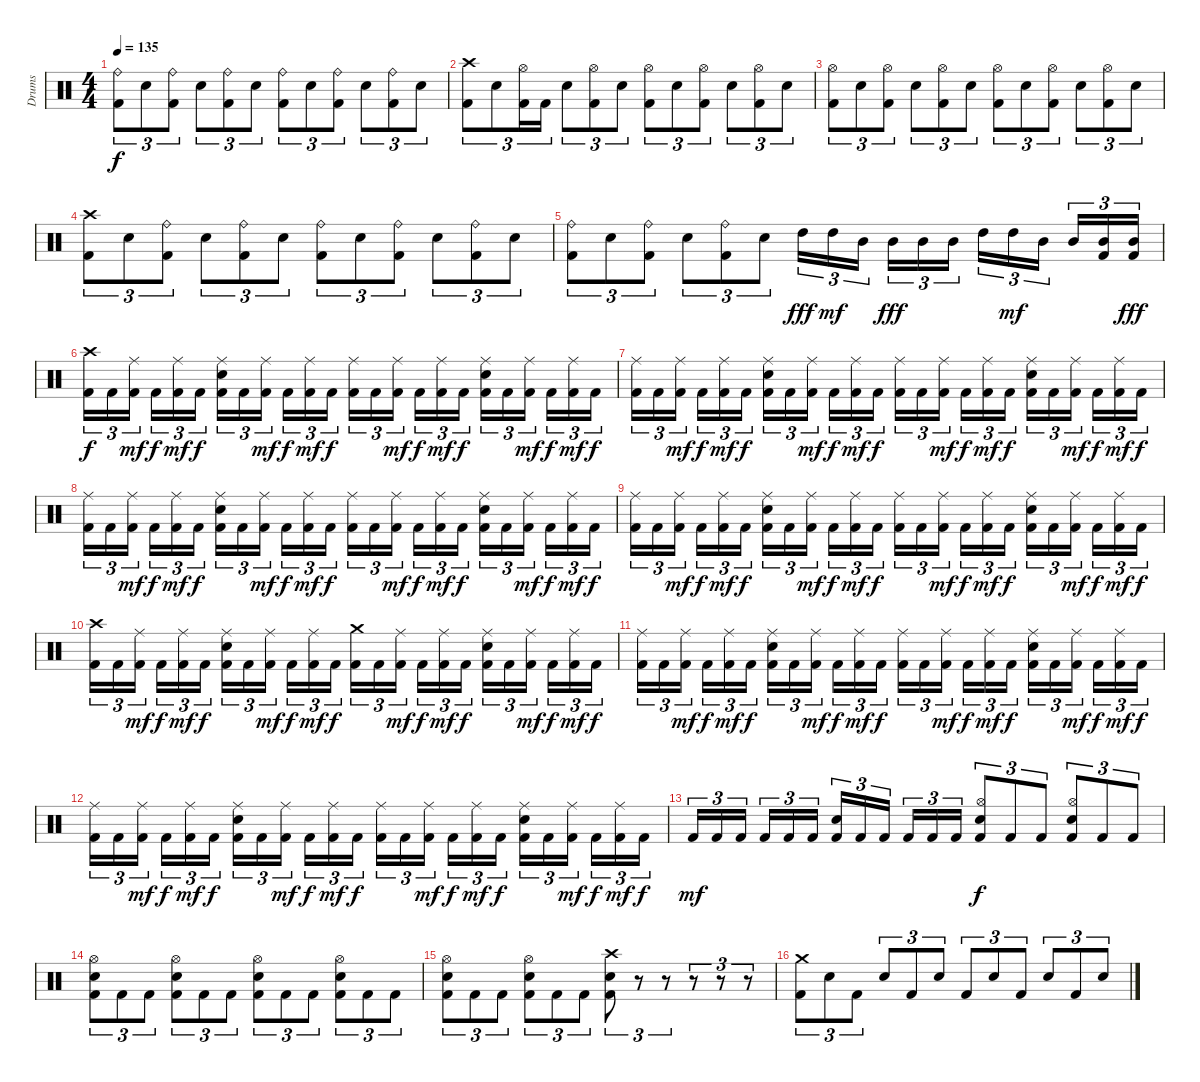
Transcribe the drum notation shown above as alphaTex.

\track ("Drums" "Drums") {instrument percussion}
\staff {score}
\articulation defaults
\ts (4 4)
\tempo 135
\clef neutral
\ks c
("Ride (bell)" "Kick (hit) 2").8{tu (3 2) dy f} "Snare (hit) 2".8{tu (3 2)} ("Ride (bell)" "Kick (hit) 2").8{tu (3 2)} "Snare (hit) 2".8{tu (3 2)} ("Ride (bell)" "Kick (hit) 2").8{tu (3 2)} "Snare (hit) 2".8{tu (3 2)} ("Ride (bell)" "Kick (hit) 2").8{tu (3 2)} "Snare (hit) 2".8{tu (3 2)} ("Ride (bell)" "Kick (hit) 2").8{tu (3 2)} "Snare (hit) 2".8{tu (3 2)} ("Ride (bell)" "Kick (hit) 2").8{tu (3 2)} "Snare (hit) 2".8{tu (3 2)} |
("Crash high (hit)" "Kick (hit) 2").8{tu (3 2)} "Snare (hit) 2".8{tu (3 2)} ("Hi-Hat (open)" "Kick (hit) 2").16{tu (3 2)} "Kick (hit) 2".16{tu (3 2)} "Snare (hit) 2".8{tu (3 2)} ("Hi-Hat (open)" "Kick (hit) 2").8{tu (3 2)} "Snare (hit) 2".8{tu (3 2)} ("Hi-Hat (open)" "Kick (hit) 2").8{tu (3 2)} "Snare (hit) 2".8{tu (3 2)} ("Hi-Hat (open)" "Kick (hit) 2").8{tu (3 2)} "Snare (hit) 2".8{tu (3 2)} ("Hi-Hat (open)" "Kick (hit) 2").8{tu (3 2)} "Snare (hit) 2".8{tu (3 2)} |
("Hi-Hat (open)" "Kick (hit) 2").8{tu (3 2)} "Snare (hit) 2".8{tu (3 2)} ("Hi-Hat (open)" "Kick (hit) 2").8{tu (3 2)} "Snare (hit) 2".8{tu (3 2)} ("Hi-Hat (open)" "Kick (hit) 2").8{tu (3 2)} "Snare (hit) 2".8{tu (3 2)} ("Hi-Hat (open)" "Kick (hit) 2").8{tu (3 2)} "Snare (hit) 2".8{tu (3 2)} ("Hi-Hat (open)" "Kick (hit) 2").8{tu (3 2)} "Snare (hit) 2".8{tu (3 2)} ("Hi-Hat (open)" "Kick (hit) 2").8{tu (3 2)} "Snare (hit) 2".8{tu (3 2)} |
("Crash high (hit)" "Kick (hit) 2").8{tu (3 2)} "Snare (hit) 2".8{tu (3 2)} ("Ride (bell)" "Kick (hit) 2").8{tu (3 2)} "Snare (hit) 2".8{tu (3 2)} ("Ride (bell)" "Kick (hit) 2").8{tu (3 2)} "Snare (hit) 2".8{tu (3 2)} ("Ride (bell)" "Kick (hit) 2").8{tu (3 2)} "Snare (hit) 2".8{tu (3 2)} ("Ride (bell)" "Kick (hit) 2").8{tu (3 2)} "Snare (hit) 2".8{tu (3 2)} ("Ride (bell)" "Kick (hit) 2").8{tu (3 2)} "Snare (hit) 2".8{tu (3 2)} |
("Ride (bell)" "Kick (hit) 2").8{tu (3 2)} "Snare (hit) 2".8{tu (3 2)} ("Ride (bell)" "Kick (hit) 2").8{tu (3 2)} "Snare (hit) 2".8{tu (3 2)} ("Ride (bell)" "Kick (hit) 2").8{tu (3 2)} "Snare (hit) 2".8{tu (3 2)} "High Tom (hit)".16{tu (3 2) dy fff} "High Tom (hit)".16{tu (3 2) dy mf} "Mid Tom (hit)".16{tu (3 2) beam splitsecondary} "Mid Tom (hit)".16{tu (3 2) dy fff} "Mid Tom (hit)".16{tu (3 2)} "Mid Tom (hit)".16{tu (3 2)} "High Tom (hit)".16{tu (3 2)} "High Tom (hit)".16{tu (3 2) dy mf} "Mid Tom (hit)".16{tu (3 2) beam splitsecondary} "Mid Tom (hit)".16{tu (3 2)} ("Mid Tom (hit)" "Kick (hit) 2").16{tu (3 2)} ("Mid Tom (hit)" "Kick (hit) 2").16{tu (3 2) dy fff} |
("Crash high (hit)" "Kick (hit) 2").16{tu (3 2) dy f} "Kick (hit) 2".16{tu (3 2)} ("Ride (middle)" "Kick (hit) 2").16{tu (3 2) dy mf beam splitsecondary} "Kick (hit) 2".16{tu (3 2) dy f} ("Ride (middle)" "Kick (hit) 2").16{tu (3 2) dy mf} "Kick (hit) 2".16{tu (3 2) dy f} ("Ride (middle)" "Electric Snare (hit)" "Kick (hit) 2").16{tu (3 2)} "Kick (hit) 2".16{tu (3 2)} ("Ride (middle)" "Kick (hit) 2").16{tu (3 2) dy mf beam splitsecondary} "Kick (hit) 2".16{tu (3 2) dy f} ("Ride (middle)" "Kick (hit) 2").16{tu (3 2) dy mf} "Kick (hit) 2".16{tu (3 2) dy f} ("Ride (middle)" "Kick (hit) 2").16{tu (3 2)} "Kick (hit) 2".16{tu (3 2)} ("Ride (middle)" "Kick (hit) 2").16{tu (3 2) dy mf beam splitsecondary} "Kick (hit) 2".16{tu (3 2) dy f} ("Ride (middle)" "Kick (hit) 2").16{tu (3 2) dy mf} "Kick (hit) 2".16{tu (3 2) dy f} ("Ride (middle)" "Electric Snare (hit)" "Kick (hit) 2").16{tu (3 2)} "Kick (hit) 2".16{tu (3 2)} ("Ride (middle)" "Kick (hit) 2").16{tu (3 2) dy mf beam splitsecondary} "Kick (hit) 2".16{tu (3 2) dy f} ("Ride (middle)" "Kick (hit) 2").16{tu (3 2) dy mf} "Kick (hit) 2".16{tu (3 2) dy f} |
("Ride (middle)" "Kick (hit) 2").16{tu (3 2)} "Kick (hit) 2".16{tu (3 2)} ("Ride (middle)" "Kick (hit) 2").16{tu (3 2) dy mf beam splitsecondary} "Kick (hit) 2".16{tu (3 2) dy f} ("Ride (middle)" "Kick (hit) 2").16{tu (3 2) dy mf} "Kick (hit) 2".16{tu (3 2) dy f} ("Ride (middle)" "Electric Snare (hit)" "Kick (hit) 2").16{tu (3 2)} "Kick (hit) 2".16{tu (3 2)} ("Ride (middle)" "Kick (hit) 2").16{tu (3 2) dy mf beam splitsecondary} "Kick (hit) 2".16{tu (3 2) dy f} ("Ride (middle)" "Kick (hit) 2").16{tu (3 2) dy mf} "Kick (hit) 2".16{tu (3 2) dy f} ("Ride (middle)" "Kick (hit) 2").16{tu (3 2)} "Kick (hit) 2".16{tu (3 2)} ("Ride (middle)" "Kick (hit) 2").16{tu (3 2) dy mf beam splitsecondary} "Kick (hit) 2".16{tu (3 2) dy f} ("Ride (middle)" "Kick (hit) 2").16{tu (3 2) dy mf} "Kick (hit) 2".16{tu (3 2) dy f} ("Ride (middle)" "Electric Snare (hit)" "Kick (hit) 2").16{tu (3 2)} "Kick (hit) 2".16{tu (3 2)} ("Ride (middle)" "Kick (hit) 2").16{tu (3 2) dy mf beam splitsecondary} "Kick (hit) 2".16{tu (3 2) dy f} ("Ride (middle)" "Kick (hit) 2").16{tu (3 2) dy mf} "Kick (hit) 2".16{tu (3 2) dy f} |
("Ride (middle)" "Kick (hit) 2").16{tu (3 2)} "Kick (hit) 2".16{tu (3 2)} ("Ride (middle)" "Kick (hit) 2").16{tu (3 2) dy mf beam splitsecondary} "Kick (hit) 2".16{tu (3 2) dy f} ("Ride (middle)" "Kick (hit) 2").16{tu (3 2) dy mf} "Kick (hit) 2".16{tu (3 2) dy f} ("Ride (middle)" "Electric Snare (hit)" "Kick (hit) 2").16{tu (3 2)} "Kick (hit) 2".16{tu (3 2)} ("Ride (middle)" "Kick (hit) 2").16{tu (3 2) dy mf beam splitsecondary} "Kick (hit) 2".16{tu (3 2) dy f} ("Ride (middle)" "Kick (hit) 2").16{tu (3 2) dy mf} "Kick (hit) 2".16{tu (3 2) dy f} ("Ride (middle)" "Kick (hit) 2").16{tu (3 2)} "Kick (hit) 2".16{tu (3 2)} ("Ride (middle)" "Kick (hit) 2").16{tu (3 2) dy mf beam splitsecondary} "Kick (hit) 2".16{tu (3 2) dy f} ("Ride (middle)" "Kick (hit) 2").16{tu (3 2) dy mf} "Kick (hit) 2".16{tu (3 2) dy f} ("Ride (middle)" "Electric Snare (hit)" "Kick (hit) 2").16{tu (3 2)} "Kick (hit) 2".16{tu (3 2)} ("Ride (middle)" "Kick (hit) 2").16{tu (3 2) dy mf beam splitsecondary} "Kick (hit) 2".16{tu (3 2) dy f} ("Ride (middle)" "Kick (hit) 2").16{tu (3 2) dy mf} "Kick (hit) 2".16{tu (3 2) dy f} |
("Ride (middle)" "Kick (hit) 2").16{tu (3 2)} "Kick (hit) 2".16{tu (3 2)} ("Ride (middle)" "Kick (hit) 2").16{tu (3 2) dy mf beam splitsecondary} "Kick (hit) 2".16{tu (3 2) dy f} ("Ride (middle)" "Kick (hit) 2").16{tu (3 2) dy mf} "Kick (hit) 2".16{tu (3 2) dy f} ("Ride (middle)" "Electric Snare (hit)" "Kick (hit) 2").16{tu (3 2)} "Kick (hit) 2".16{tu (3 2)} ("Ride (middle)" "Kick (hit) 2").16{tu (3 2) dy mf beam splitsecondary} "Kick (hit) 2".16{tu (3 2) dy f} ("Ride (middle)" "Kick (hit) 2").16{tu (3 2) dy mf} "Kick (hit) 2".16{tu (3 2) dy f} ("Ride (middle)" "Kick (hit) 2").16{tu (3 2)} "Kick (hit) 2".16{tu (3 2)} ("Ride (middle)" "Kick (hit) 2").16{tu (3 2) dy mf beam splitsecondary} "Kick (hit) 2".16{tu (3 2) dy f} ("Ride (middle)" "Kick (hit) 2").16{tu (3 2) dy mf} "Kick (hit) 2".16{tu (3 2) dy f} ("Ride (middle)" "Electric Snare (hit)" "Kick (hit) 2").16{tu (3 2)} "Kick (hit) 2".16{tu (3 2)} ("Ride (middle)" "Kick (hit) 2").16{tu (3 2) dy mf beam splitsecondary} "Kick (hit) 2".16{tu (3 2) dy f} ("Ride (middle)" "Kick (hit) 2").16{tu (3 2) dy mf} "Kick (hit) 2".16{tu (3 2) dy f} |
("Crash high (hit)" "Kick (hit) 2").16{tu (3 2)} "Kick (hit) 2".16{tu (3 2)} ("Ride (middle)" "Kick (hit) 2").16{tu (3 2) dy mf beam splitsecondary} "Kick (hit) 2".16{tu (3 2) dy f} ("Ride (middle)" "Kick (hit) 2").16{tu (3 2) dy mf} "Kick (hit) 2".16{tu (3 2) dy f} ("Ride (middle)" "Electric Snare (hit)" "Kick (hit) 2").16{tu (3 2)} "Kick (hit) 2".16{tu (3 2)} ("Ride (middle)" "Kick (hit) 2").16{tu (3 2) dy mf beam splitsecondary} "Kick (hit) 2".16{tu (3 2) dy f} ("Ride (middle)" "Kick (hit) 2").16{tu (3 2) dy mf} "Kick (hit) 2".16{tu (3 2) dy f} ("Crash medium (hit)" "Kick (hit) 2").16{tu (3 2)} "Kick (hit) 2".16{tu (3 2)} ("Ride (middle)" "Kick (hit) 2").16{tu (3 2) dy mf beam splitsecondary} "Kick (hit) 2".16{tu (3 2) dy f} ("Ride (middle)" "Kick (hit) 2").16{tu (3 2) dy mf} "Kick (hit) 2".16{tu (3 2) dy f} ("Ride (middle)" "Electric Snare (hit)" "Kick (hit) 2").16{tu (3 2)} "Kick (hit) 2".16{tu (3 2)} ("Ride (middle)" "Kick (hit) 2").16{tu (3 2) dy mf beam splitsecondary} "Kick (hit) 2".16{tu (3 2) dy f} ("Ride (middle)" "Kick (hit) 2").16{tu (3 2) dy mf} "Kick (hit) 2".16{tu (3 2) dy f} |
("Ride (middle)" "Kick (hit) 2").16{tu (3 2)} "Kick (hit) 2".16{tu (3 2)} ("Ride (middle)" "Kick (hit) 2").16{tu (3 2) dy mf beam splitsecondary} "Kick (hit) 2".16{tu (3 2) dy f} ("Ride (middle)" "Kick (hit) 2").16{tu (3 2) dy mf} "Kick (hit) 2".16{tu (3 2) dy f} ("Ride (middle)" "Electric Snare (hit)" "Kick (hit) 2").16{tu (3 2)} "Kick (hit) 2".16{tu (3 2)} ("Ride (middle)" "Kick (hit) 2").16{tu (3 2) dy mf beam splitsecondary} "Kick (hit) 2".16{tu (3 2) dy f} ("Ride (middle)" "Kick (hit) 2").16{tu (3 2) dy mf} "Kick (hit) 2".16{tu (3 2) dy f} ("Ride (middle)" "Kick (hit) 2").16{tu (3 2)} "Kick (hit) 2".16{tu (3 2)} ("Ride (middle)" "Kick (hit) 2").16{tu (3 2) dy mf beam splitsecondary} "Kick (hit) 2".16{tu (3 2) dy f} ("Ride (middle)" "Kick (hit) 2").16{tu (3 2) dy mf} "Kick (hit) 2".16{tu (3 2) dy f} ("Ride (middle)" "Electric Snare (hit)" "Kick (hit) 2").16{tu (3 2)} "Kick (hit) 2".16{tu (3 2)} ("Ride (middle)" "Kick (hit) 2").16{tu (3 2) dy mf beam splitsecondary} "Kick (hit) 2".16{tu (3 2) dy f} ("Ride (middle)" "Kick (hit) 2").16{tu (3 2) dy mf} "Kick (hit) 2".16{tu (3 2) dy f} |
("Ride (middle)" "Kick (hit) 2").16{tu (3 2)} "Kick (hit) 2".16{tu (3 2)} ("Ride (middle)" "Kick (hit) 2").16{tu (3 2) dy mf beam splitsecondary} "Kick (hit) 2".16{tu (3 2) dy f} ("Ride (middle)" "Kick (hit) 2").16{tu (3 2) dy mf} "Kick (hit) 2".16{tu (3 2) dy f} ("Ride (middle)" "Electric Snare (hit)" "Kick (hit) 2").16{tu (3 2)} "Kick (hit) 2".16{tu (3 2)} ("Ride (middle)" "Kick (hit) 2").16{tu (3 2) dy mf beam splitsecondary} "Kick (hit) 2".16{tu (3 2) dy f} ("Ride (middle)" "Kick (hit) 2").16{tu (3 2) dy mf} "Kick (hit) 2".16{tu (3 2) dy f} ("Ride (middle)" "Kick (hit) 2").16{tu (3 2)} "Kick (hit) 2".16{tu (3 2)} ("Ride (middle)" "Kick (hit) 2").16{tu (3 2) dy mf beam splitsecondary} "Kick (hit) 2".16{tu (3 2) dy f} ("Ride (middle)" "Kick (hit) 2").16{tu (3 2) dy mf} "Kick (hit) 2".16{tu (3 2) dy f} ("Ride (middle)" "Electric Snare (hit)" "Kick (hit) 2").16{tu (3 2)} "Kick (hit) 2".16{tu (3 2)} ("Ride (middle)" "Kick (hit) 2").16{tu (3 2) dy mf beam splitsecondary} "Kick (hit) 2".16{tu (3 2) dy f} ("Ride (middle)" "Kick (hit) 2").16{tu (3 2) dy mf} "Kick (hit) 2".16{tu (3 2) dy f} |
"Kick (hit) 2".16{tu (3 2) dy mf} "Kick (hit) 2".16{tu (3 2)} "Kick (hit) 2".16{tu (3 2) beam splitsecondary} "Kick (hit) 2".16{tu (3 2)} "Kick (hit) 2".16{tu (3 2)} "Kick (hit) 2".16{tu (3 2)} ("Electric Snare (hit)" "Kick (hit) 2").16{tu (3 2)} "Kick (hit) 2".16{tu (3 2)} "Kick (hit) 2".16{tu (3 2) beam splitsecondary} "Kick (hit) 2".16{tu (3 2)} "Kick (hit) 2".16{tu (3 2)} "Kick (hit) 2".16{tu (3 2)} ("Hi-Hat (open)" "Electric Snare (hit)" "Kick (hit) 2").8{tu (3 2) dy f} "Kick (hit) 2".8{tu (3 2)} "Kick (hit) 2".8{tu (3 2)} ("Hi-Hat (open)" "Electric Snare (hit)" "Kick (hit) 2").8{tu (3 2)} "Kick (hit) 2".8{tu (3 2)} "Kick (hit) 2".8{tu (3 2)} |
("Hi-Hat (open)" "Snare (hit) 2" "Kick (hit) 2").8{tu (3 2)} "Kick (hit) 2".8{tu (3 2)} "Kick (hit) 2".8{tu (3 2)} ("Hi-Hat (open)" "Snare (hit) 2" "Kick (hit) 2").8{tu (3 2)} "Kick (hit) 2".8{tu (3 2)} "Kick (hit) 2".8{tu (3 2)} ("Hi-Hat (open)" "Snare (hit) 2" "Kick (hit) 2").8{tu (3 2)} "Kick (hit) 2".8{tu (3 2)} "Kick (hit) 2".8{tu (3 2)} ("Hi-Hat (open)" "Snare (hit) 2" "Kick (hit) 2").8{tu (3 2)} "Kick (hit) 2".8{tu (3 2)} "Kick (hit) 2".8{tu (3 2)} |
("Hi-Hat (open)" "Snare (hit) 2" "Kick (hit) 2").8{tu (3 2)} "Kick (hit) 2".8{tu (3 2)} "Kick (hit) 2".8{tu (3 2)} ("Hi-Hat (open)" "Snare (hit) 2" "Kick (hit) 2").8{tu (3 2)} "Kick (hit) 2".8{tu (3 2)} "Kick (hit) 2".8{tu (3 2)} ("Crash high (hit)" "Snare (hit) 2" "Kick (hit) 2").8{tu (3 2)} r.8{tu (3 2)} r.8{tu (3 2)} r.8{tu (3 2)} r.8{tu (3 2)} r.8{tu (3 2)} |
("Crash medium (hit)" "Kick (hit) 2").8{tu (3 2)} "Snare (hit) 2".8{tu (3 2)} "Kick (hit) 2".8{tu (3 2)} "Snare (hit) 2".8{tu (3 2)} "Kick (hit) 2".8{tu (3 2)} "Snare (hit) 2".8{tu (3 2)} "Kick (hit) 2".8{tu (3 2)} "Snare (hit) 2".8{tu (3 2)} "Kick (hit) 2".8{tu (3 2)} "Snare (hit) 2".8{tu (3 2)} "Kick (hit) 2".8{tu (3 2)} "Snare (hit) 2".8{tu (3 2)}
